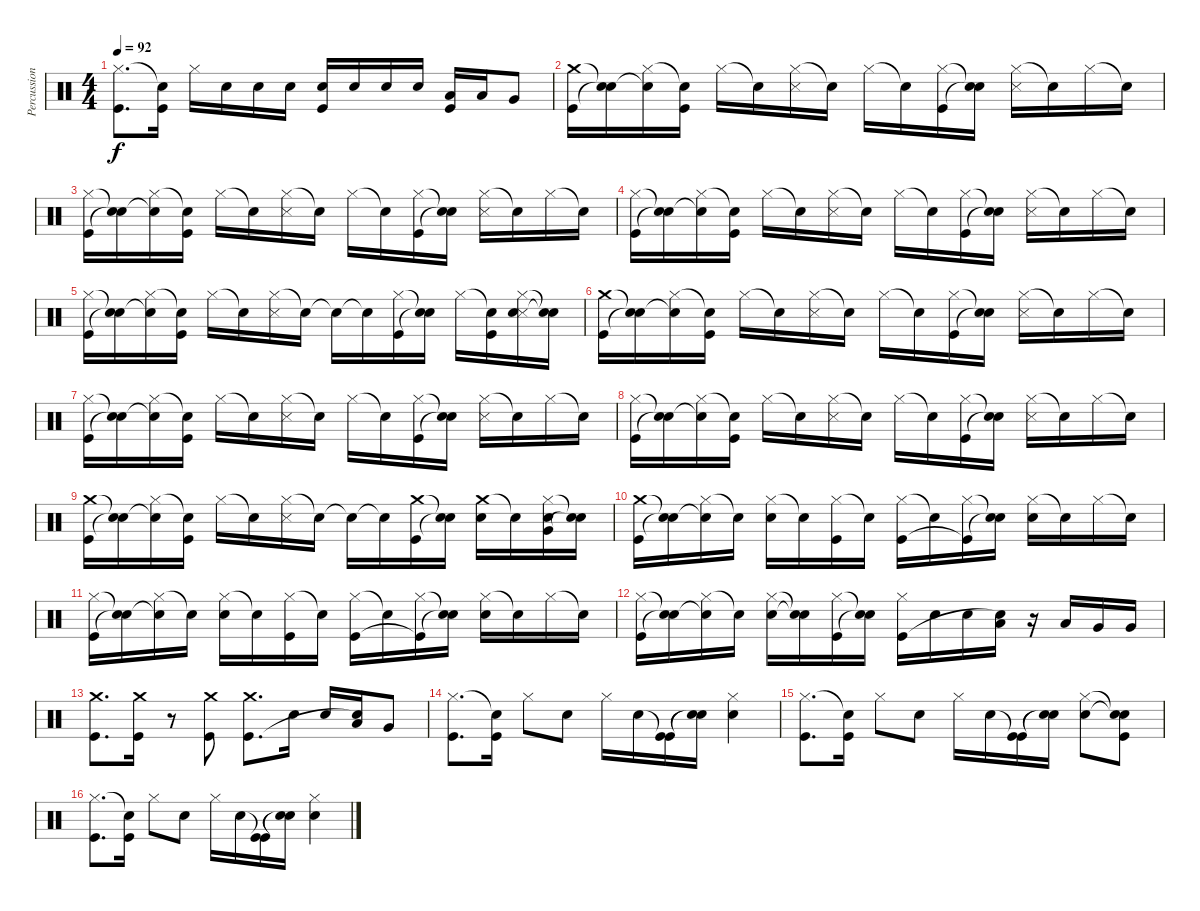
\track ("Percussion" "Percussion") {instrument percussion}
\staff {score}
\articulation defaults
\ts (4 4)
\tempo 92
\clef neutral
\ks c
("Hi-Hat (closed)" "Kick (hit)").8{d dy f} ("Snare (hit)"{t} "Kick (hit)").16 "Hi-Hat (closed)".16 "Electric Snare (hit)".16 "Electric Snare (hit)".16 "Electric Snare (hit)".16 ("Electric Snare (hit)" "Kick (hit)").16 "Electric Snare (hit)".16 "Electric Snare (hit)".16 "Electric Snare (hit)".16 ("Low Tom (hit)" "Kick (hit)").16 "Low Tom (hit)".16 "Very Low Tom (hit)".8 |
("Crash medium (hit)" "Kick (hit)").16 ("Snare (hit)"{t} "Snare (hit)"{t}).16 ("Hi-Hat (closed)" "Snare (hit)"{t}).16 ("Snare (hit)"{t} "Kick (hit)").16 "Hi-Hat (closed)".16 "Snare (hit)"{t}.16 ("Hi-Hat (closed)" "Snare (side stick) 3").16 "Snare (hit)"{t}.16 "Hi-Hat (closed)".16 "Snare (hit)"{t}.16 ("Hi-Hat (closed)" "Kick (hit)").16 ("Snare (hit)"{t} "Snare (hit)"{t}).16 ("Hi-Hat (closed)" "Snare (side stick) 3").16 "Snare (hit)"{t}.16 "Hi-Hat (closed)".16 "Snare (hit)"{t}.16 |
("Hi-Hat (closed)" "Kick (hit)").16 ("Snare (hit)"{t} "Snare (hit)"{t}).16 ("Hi-Hat (closed)" "Snare (hit)"{t}).16 ("Snare (hit)"{t} "Kick (hit)").16 "Hi-Hat (closed)".16 "Snare (hit)"{t}.16 ("Hi-Hat (closed)" "Snare (side stick) 3").16 "Snare (hit)"{t}.16 "Hi-Hat (closed)".16 "Snare (hit)"{t}.16 ("Hi-Hat (closed)" "Kick (hit)").16 ("Snare (hit)"{t} "Snare (hit)"{t}).16 ("Hi-Hat (closed)" "Snare (side stick) 3").16 "Snare (hit)"{t}.16 "Hi-Hat (closed)".16 "Snare (hit)"{t}.16 |
("Hi-Hat (closed)" "Kick (hit)").16 ("Snare (hit)"{t} "Snare (hit)"{t}).16 ("Hi-Hat (closed)" "Snare (hit)"{t}).16 ("Snare (hit)"{t} "Kick (hit)").16 "Hi-Hat (closed)".16 "Snare (hit)"{t}.16 ("Hi-Hat (closed)" "Snare (side stick) 3").16 "Snare (hit)"{t}.16 "Hi-Hat (closed)".16 "Snare (hit)"{t}.16 ("Hi-Hat (closed)" "Kick (hit)").16 ("Snare (hit)"{t} "Snare (hit)"{t}).16 ("Hi-Hat (closed)" "Snare (side stick) 3").16 "Snare (hit)"{t}.16 "Hi-Hat (closed)".16 "Snare (hit)"{t}.16 |
("Hi-Hat (closed)" "Kick (hit)").16 ("Snare (hit)"{t} "Snare (hit)"{t}).16 ("Hi-Hat (closed)" "Snare (hit)"{t}).16 ("Snare (hit)"{t} "Kick (hit)").16 "Hi-Hat (closed)".16 "Snare (hit)"{t}.16 ("Hi-Hat (closed)" "Snare (side stick) 3").16 "Snare (hit)"{t}.16 "Snare (hit)"{t}.16 "Snare (hit)"{t}.16 ("Hi-Hat (closed)" "Kick (hit)").16 ("Snare (hit)"{t} "Snare (hit)"{t}).16 "Hi-Hat (closed)".16 ("Snare (hit)"{t} "Kick (hit)").16 ("Hi-Hat (closed)" "Snare (side stick) 3" "Snare (hit)").16 ("Snare (hit)"{t} "Snare (hit)"{t}).16 |
("Crash medium (hit)" "Kick (hit)").16 ("Snare (hit)"{t} "Snare (hit)"{t}).16 ("Hi-Hat (closed)" "Snare (hit)"{t}).16 ("Snare (hit)"{t} "Kick (hit)").16 "Hi-Hat (closed)".16 "Snare (hit)"{t}.16 ("Hi-Hat (closed)" "Snare (side stick) 3").16 "Snare (hit)"{t}.16 "Hi-Hat (closed)".16 "Snare (hit)"{t}.16 ("Hi-Hat (closed)" "Kick (hit)").16 ("Snare (hit)"{t} "Snare (hit)"{t}).16 ("Hi-Hat (closed)" "Snare (side stick) 3").16 "Snare (hit)"{t}.16 "Hi-Hat (closed)".16 "Snare (hit)"{t}.16 |
("Hi-Hat (closed)" "Kick (hit)").16 ("Snare (hit)"{t} "Snare (hit)"{t}).16 ("Hi-Hat (closed)" "Snare (hit)"{t}).16 ("Snare (hit)"{t} "Kick (hit)").16 "Hi-Hat (closed)".16 "Snare (hit)"{t}.16 ("Hi-Hat (closed)" "Snare (side stick) 3").16 "Snare (hit)"{t}.16 "Hi-Hat (closed)".16 "Snare (hit)"{t}.16 ("Hi-Hat (closed)" "Kick (hit)").16 ("Snare (hit)"{t} "Snare (hit)"{t}).16 ("Hi-Hat (closed)" "Snare (side stick) 3").16 "Snare (hit)"{t}.16 "Hi-Hat (closed)".16 "Snare (hit)"{t}.16 |
("Hi-Hat (closed)" "Kick (hit)").16 ("Snare (hit)"{t} "Snare (hit)"{t}).16 ("Hi-Hat (closed)" "Snare (hit)"{t}).16 ("Snare (hit)"{t} "Kick (hit)").16 "Hi-Hat (closed)".16 "Snare (hit)"{t}.16 ("Hi-Hat (closed)" "Snare (side stick) 3").16 "Snare (hit)"{t}.16 "Hi-Hat (closed)".16 "Snare (hit)"{t}.16 ("Hi-Hat (closed)" "Kick (hit)").16 ("Snare (hit)"{t} "Snare (hit)"{t}).16 ("Hi-Hat (closed)" "Snare (side stick) 3").16 "Snare (hit)"{t}.16 "Hi-Hat (closed)".16 "Snare (hit)"{t}.16 |
("Crash medium (hit)" "Kick (hit)").16 ("Snare (hit)"{t} "Snare (hit)"{t}).16 ("Hi-Hat (closed)" "Snare (hit)"{t}).16 ("Snare (hit)"{t} "Kick (hit)").16 "Hi-Hat (closed)".16 "Snare (hit)"{t}.16 ("Hi-Hat (closed)" "Snare (side stick) 3").16 "Snare (hit)"{t}.16 "Snare (hit)"{t}.16 "Snare (hit)"{t}.16 ("Crash medium (hit)" "Kick (hit)").16 ("Snare (hit)"{t} "Snare (hit)"{t}).16 ("Crash medium (hit)" "Electric Snare (hit)").16 "Snare (hit)"{t}.16 ("Hi-Hat (closed)" "Very Low Tom (hit)" "Snare (hit)").16 ("Snare (hit)"{t} "Snare (hit)"{t}).16 |
("Crash medium (hit)" "Kick (hit)").16 ("Snare (hit)"{t} "Snare (hit)"{t}).16 ("Hi-Hat (closed)" "Snare (hit)"{t}).16 "Snare (hit)"{t}.16 ("Hi-Hat (closed)" "Electric Snare (hit)").16 "Snare (hit)"{t}.16 ("Hi-Hat (closed)" "Kick (hit)").16 "Snare (hit)"{t}.16 ("Hi-Hat (closed)" "Kick (hit)").16 "Snare (hit)"{t}.16 ("Hi-Hat (closed)" "Kick (hit)"{t}).16 ("Snare (hit)"{t} "Snare (hit)"{t}).16 ("Hi-Hat (closed)" "Electric Snare (hit)").16 "Snare (hit)"{t}.16 "Hi-Hat (closed)".16 "Snare (hit)"{t}.16 |
("Hi-Hat (closed)" "Kick (hit)").16 ("Snare (hit)"{t} "Snare (hit)"{t}).16 ("Hi-Hat (closed)" "Snare (hit)"{t}).16 "Snare (hit)"{t}.16 ("Hi-Hat (closed)" "Electric Snare (hit)").16 "Snare (hit)"{t}.16 ("Hi-Hat (closed)" "Kick (hit)").16 "Snare (hit)"{t}.16 ("Hi-Hat (closed)" "Kick (hit)").16 "Snare (hit)"{t}.16 ("Hi-Hat (closed)" "Kick (hit)"{t}).16 ("Snare (hit)"{t} "Snare (hit)"{t}).16 ("Hi-Hat (closed)" "Electric Snare (hit)").16 "Snare (hit)"{t}.16 "Hi-Hat (closed)".16 "Snare (hit)"{t}.16 |
("Hi-Hat (closed)" "Kick (hit)").16 ("Snare (hit)"{t} "Snare (hit)"{t}).16 ("Hi-Hat (closed)" "Snare (hit)"{t}).16 "Snare (hit)"{t}.16 ("Hi-Hat (closed)" "Electric Snare (hit)").16 ("Snare (hit)"{t} "Snare (hit)"{t}).16 ("Hi-Hat (closed)" "Kick (hit)").16 ("Snare (hit)"{t} "Snare (hit)"{t}).16 ("Hi-Hat (closed)" "Kick (hit)").16 "Electric Snare (hit)".16 "Electric Snare (hit)".16 ("Low Tom (hit)" "Snare (hit)"{t}).16 r.16 "Low Tom (hit)".16 "Very Low Tom (hit)".16 "Very Low Tom (hit)".16 |
("Crash medium (hit)" "Kick (hit)").8{d} ("Crash medium (hit)" "Kick (hit)").16 r.8 ("Crash medium (hit)" "Kick (hit)").8 ("Crash medium (hit)" "Kick (hit)").8{d} "Electric Snare (hit)".16 "Electric Snare (hit)".16 ("Low Tom (hit)" "Snare (hit)"{t}).16 "Very Low Tom (hit)".8 |
("Hi-Hat (closed)" "Kick (hit)").8{d} ("Snare (hit)"{t} "Kick (hit)").16 "Hi-Hat (closed)".8 "Electric Snare (hit)".8 "Hi-Hat (closed)".16 "Electric Snare (hit)".16 ("Kick (hit)"{t} "Kick (hit)").16 ("Snare (hit)"{t} "Snare (hit)"{t}).16 ("Hi-Hat (closed)" "Electric Snare (hit)").4 |
("Hi-Hat (closed)" "Kick (hit)").8{d} ("Snare (hit)"{t} "Kick (hit)").16 "Hi-Hat (closed)".8 "Electric Snare (hit)".8 "Hi-Hat (closed)".16 "Electric Snare (hit)".16 ("Kick (hit)"{t} "Kick (hit)").16 ("Snare (hit)"{t} "Snare (hit)"{t}).16 ("Hi-Hat (closed)" "Electric Snare (hit)").8 ("Snare (hit)"{t} "Snare (hit)"{t} "Kick (hit)").8 |
("Hi-Hat (closed)" "Kick (hit)").8{d} ("Snare (hit)"{t} "Kick (hit)").16 "Hi-Hat (closed)".8 "Electric Snare (hit)".8 "Hi-Hat (closed)".16 "Electric Snare (hit)".16 ("Kick (hit)"{t} "Kick (hit)").16 ("Snare (hit)"{t} "Snare (hit)"{t}).16 ("Hi-Hat (closed)" "Electric Snare (hit)").4
